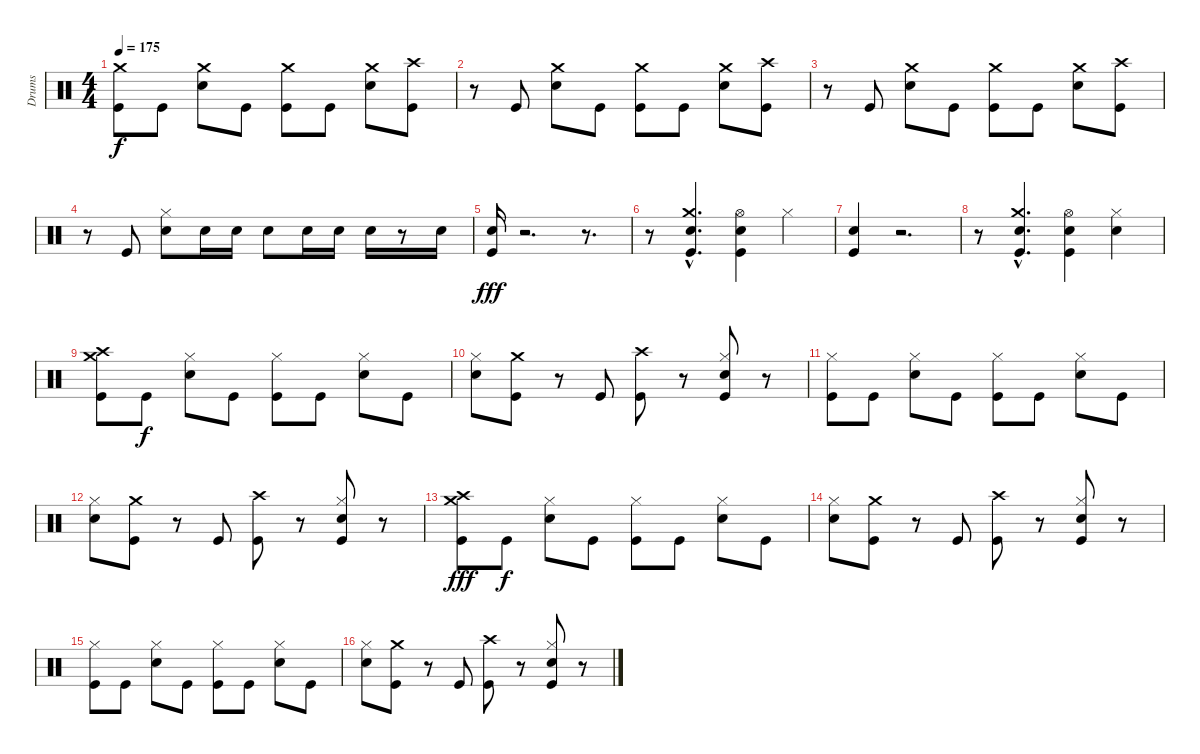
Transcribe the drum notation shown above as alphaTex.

\track ("Drums" "Drums") {instrument percussion}
\staff {score}
\articulation defaults
\ts (4 4)
\tempo 175
\clef neutral
\ks c
("Kick (hit)" "Crash medium (hit)").8{dy f} "Kick (hit)".8 ("Electric Snare (hit)" "Crash medium (hit)").8 "Kick (hit)".8 ("Kick (hit)" "Crash medium (hit)").8 "Kick (hit)".8 ("Electric Snare (hit)" "Crash medium (hit)").8 ("Kick (hit)" "Crash high (hit)").8 |
r.8 "Kick (hit)".8 ("Electric Snare (hit)" "Crash medium (hit)").8 "Kick (hit)".8 ("Kick (hit)" "Crash medium (hit)").8 "Kick (hit)".8 ("Electric Snare (hit)" "Crash medium (hit)").8 ("Kick (hit)" "Crash high (hit)").8 |
r.8 "Kick (hit)".8 ("Electric Snare (hit)" "Crash medium (hit)").8 "Kick (hit)".8 ("Kick (hit)" "Crash medium (hit)").8 "Kick (hit)".8 ("Electric Snare (hit)" "Crash medium (hit)").8 ("Kick (hit)" "Crash high (hit)").8 |
r.8 "Kick (hit)".8 ("Electric Snare (hit)" "Hi-Hat (closed)").8 "Snare (hit) 2".16 "Snare (hit) 2".16 "Snare (hit) 2".8 "Snare (hit) 2".16 "Snare (hit) 2".16 "Snare (hit) 2".16 r.8 "Electric Snare (hit)".16 |
("Kick (hit)" "Electric Snare (hit)").16{dy fff} r.2{d} r.8{d} |
r.8 ("Crash medium (hit)"{hac} "Electric Snare (hit)"{hac} "Kick (hit)"{hac}).4{d} ("Kick (hit)" "Snare (hit) 2" "Hi-Hat (open)").4 "Hi-Hat (closed)".4 |
("Kick (hit)" "Electric Snare (hit)").4 r.2{d} |
r.8 ("Crash medium (hit)"{hac} "Electric Snare (hit)"{hac} "Kick (hit)"{hac}).4{d} ("Kick (hit)" "Snare (hit) 2" "Hi-Hat (open)").4 ("Snare (hit) 2" "Hi-Hat (closed)").4 |
("Crash high (hit)" "Crash medium (hit)" "Kick (hit)").8 "Kick (hit)".8{dy f} ("Hi-Hat (closed)" "Electric Snare (hit)").8 "Kick (hit)".8 ("Hi-Hat (closed)" "Kick (hit)").8 "Kick (hit)".8 ("Hi-Hat (closed)" "Electric Snare (hit)").8 "Kick (hit)".8 |
("Electric Snare (hit)" "Hi-Hat (closed)").8 ("Crash medium (hit)" "Kick (hit)").8 r.8 "Kick (hit)".8 ("Crash high (hit)" "Kick (hit)").8 r.8 ("Hi-Hat (closed)" "Snare (hit) 2" "Kick (hit)").8 r.8 |
("Hi-Hat (closed)" "Kick (hit)").8 "Kick (hit)".8 ("Hi-Hat (closed)" "Electric Snare (hit)").8 "Kick (hit)".8 ("Hi-Hat (closed)" "Kick (hit)").8 "Kick (hit)".8 ("Hi-Hat (closed)" "Electric Snare (hit)").8 "Kick (hit)".8 |
("Electric Snare (hit)" "Hi-Hat (closed)").8 ("Crash medium (hit)" "Kick (hit)").8 r.8 "Kick (hit)".8 ("Crash high (hit)" "Kick (hit)").8 r.8 ("Hi-Hat (closed)" "Snare (hit) 2" "Kick (hit)").8 r.8 |
("Crash high (hit)" "Crash medium (hit)" "Kick (hit)").8{dy fff} "Kick (hit)".8{dy f} ("Hi-Hat (closed)" "Electric Snare (hit)").8 "Kick (hit)".8 ("Hi-Hat (closed)" "Kick (hit)").8 "Kick (hit)".8 ("Hi-Hat (closed)" "Electric Snare (hit)").8 "Kick (hit)".8 |
("Electric Snare (hit)" "Hi-Hat (closed)").8 ("Crash medium (hit)" "Kick (hit)").8 r.8 "Kick (hit)".8 ("Crash high (hit)" "Kick (hit)").8 r.8 ("Hi-Hat (closed)" "Snare (hit) 2" "Kick (hit)").8 r.8 |
("Hi-Hat (closed)" "Kick (hit)").8 "Kick (hit)".8 ("Hi-Hat (closed)" "Electric Snare (hit)").8 "Kick (hit)".8 ("Hi-Hat (closed)" "Kick (hit)").8 "Kick (hit)".8 ("Hi-Hat (closed)" "Electric Snare (hit)").8 "Kick (hit)".8 |
("Electric Snare (hit)" "Hi-Hat (closed)").8 ("Crash medium (hit)" "Kick (hit)").8 r.8 "Kick (hit)".8 ("Crash high (hit)" "Kick (hit)").8 r.8 ("Hi-Hat (closed)" "Snare (hit) 2" "Kick (hit)").8 r.8
